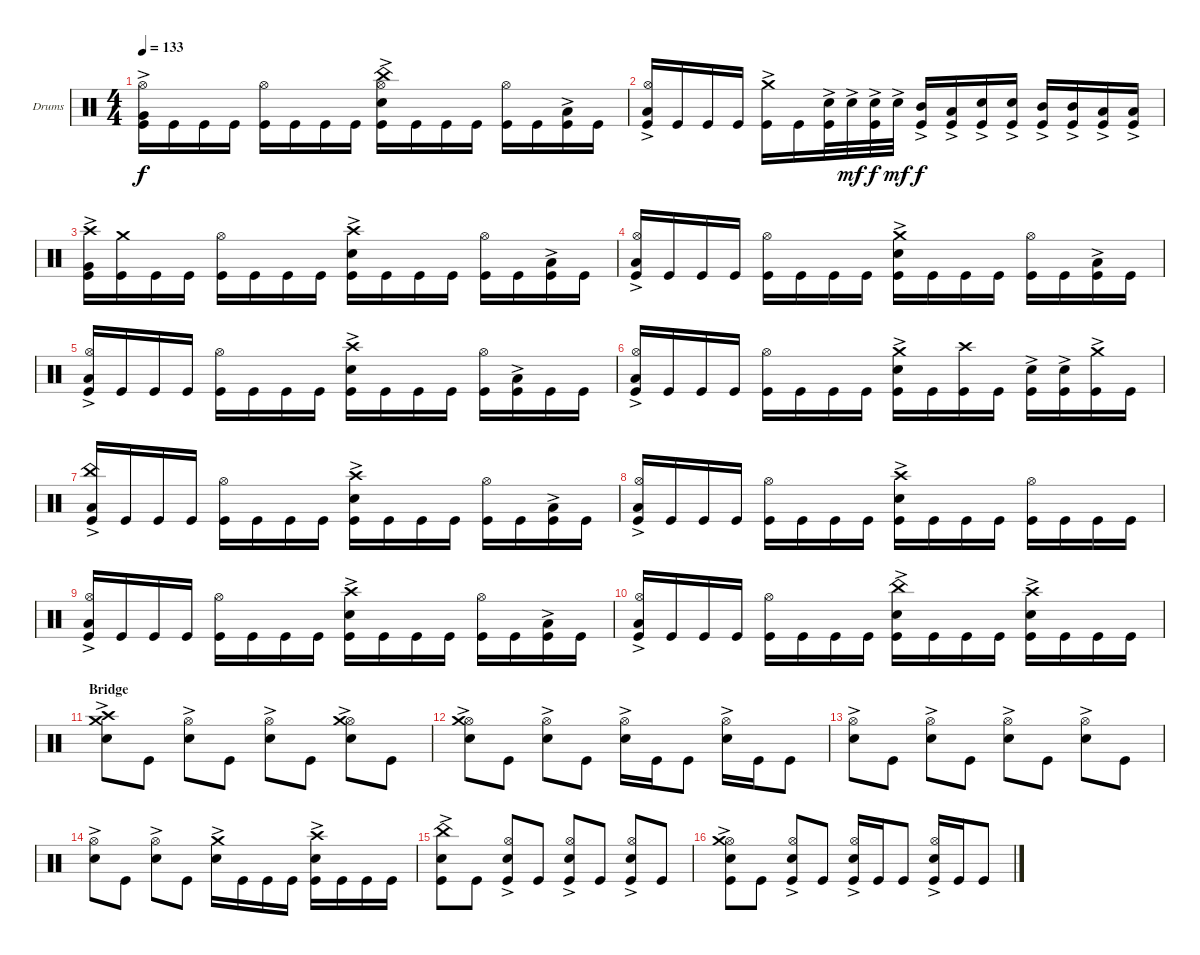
\bracketExtendMode groupsimilarinstruments
\firstSystemTrackNameOrientation horizontal
\otherSystemsTrackNameOrientation horizontal
\track ("Drumkit" "Drums") {instrument percussion}
\staff {score}
\articulation defaults
\ts (4 4)
\tempo 133
\clef neutral
\ks c
("Kick (hit)" "Very Low Tom (hit)"{ac} "Hi-Hat (open)").16{dy f} "Kick (hit)".16 "Kick (hit)".16 "Kick (hit)".16 ("Kick (hit)" "Hi-Hat (open)").16 "Kick (hit)".16 "Kick (hit)".16 "Kick (hit)".16 ("Kick (hit)" "Snare (hit) 2"{ac} "Hi-Hat (open)" "China (hit)").16 "Kick (hit)".16 "Kick (hit)".16 "Kick (hit)".16 ("Kick (hit)" "Hi-Hat (open)").16 "Kick (hit)".16 ("Kick (hit)" "Low Tom (hit)"{ac}).16 "Kick (hit)".16 |
("Kick (hit)" "Hi-Hat (open)" "Low Tom (hit)"{ac}).16 "Kick (hit)".16 "Kick (hit)".16 "Kick (hit)".16 ("Kick (hit)" "Crash medium (hit)"{ac}).16 "Kick (hit)".16 ("Kick (hit)" "Snare (hit) 2"{ac}).32 "Snare (hit) 2"{ac}.32{dy mf} ("Kick (hit)" "Snare (hit) 2"{ac}).32{dy f} "Snare (hit) 2"{ac}.32{dy mf} ("Kick (hit)" "Mid Tom (hit)"{ac}).16{dy f} ("Kick (hit)" "Low Tom (hit)"{ac}).16 ("Kick (hit)" "Snare (hit) 2"{ac}).16 ("Kick (hit)" "Snare (hit) 2"{ac}).16 ("Kick (hit)" "Mid Tom (hit)"{ac}).16 ("Kick (hit)" "Mid Tom (hit)"{ac}).16 ("Kick (hit)" "Low Tom (hit)"{ac}).16 ("Kick (hit)" "Low Tom (hit)"{ac}).16 |
("Kick (hit)" "Crash high (hit)" "Very Low Tom (hit)"{ac}).16 ("Kick (hit)" "Crash medium (hit)").16 "Kick (hit)".16 "Kick (hit)".16 ("Kick (hit)" "Hi-Hat (open)").16 "Kick (hit)".16 "Kick (hit)".16 "Kick (hit)".16 ("Kick (hit)" "Snare (hit) 2"{ac} "Crash high (hit)").16 "Kick (hit)".16 "Kick (hit)".16 "Kick (hit)".16 ("Kick (hit)" "Hi-Hat (open)").16 "Kick (hit)".16 ("Kick (hit)" "Low Tom (hit)"{ac}).16 "Kick (hit)".16 |
("Kick (hit)" "Low Tom (hit)"{ac} "Hi-Hat (open)").16 "Kick (hit)".16 "Kick (hit)".16 "Kick (hit)".16 ("Kick (hit)" "Hi-Hat (open)").16 "Kick (hit)".16 "Kick (hit)".16 "Kick (hit)".16 ("Kick (hit)" "Snare (hit) 2"{ac} "Crash medium (hit)").16 "Kick (hit)".16 "Kick (hit)".16 "Kick (hit)".16 ("Kick (hit)" "Hi-Hat (open)").16 "Kick (hit)".16 ("Kick (hit)" "Low Tom (hit)"{ac}).16 "Kick (hit)".16 |
("Kick (hit)" "Hi-Hat (open)" "Low Tom (hit)"{ac}).16 "Kick (hit)".16 "Kick (hit)".16 "Kick (hit)".16 ("Kick (hit)" "Hi-Hat (open)").16 "Kick (hit)".16 "Kick (hit)".16 "Kick (hit)".16 ("Kick (hit)" "Crash high (hit)" "Snare (hit) 2"{ac}).16 "Kick (hit)".16 "Kick (hit)".16 "Kick (hit)".16 ("Kick (hit)" "Hi-Hat (open)").16 ("Kick (hit)" "Low Tom (hit)"{ac}).16 "Kick (hit)".16 "Kick (hit)".16 |
("Kick (hit)" "Hi-Hat (open)" "Low Tom (hit)"{ac}).16 "Kick (hit)".16 "Kick (hit)".16 "Kick (hit)".16 ("Kick (hit)" "Hi-Hat (open)").16 "Kick (hit)".16 "Kick (hit)".16 "Kick (hit)".16 ("Kick (hit)" "Crash medium (hit)" "Snare (hit) 2"{ac}).16 "Kick (hit)".16 ("Kick (hit)" "Crash high (hit)").16 "Kick (hit)".16 ("Kick (hit)" "Snare (hit) 2"{ac}).16 ("Kick (hit)" "Snare (hit) 2"{ac}).16 ("Kick (hit)" "Crash medium (hit)"{ac}).16 "Kick (hit)".16 |
("Kick (hit)" "China (hit)"{ac} "Low Tom (hit)"{ac}).16 "Kick (hit)".16 "Kick (hit)".16 "Kick (hit)".16 ("Kick (hit)" "Hi-Hat (open)").16 "Kick (hit)".16 "Kick (hit)".16 "Kick (hit)".16 ("Kick (hit)" "Crash high (hit)" "Snare (hit) 2"{ac}).16 "Kick (hit)".16 "Kick (hit)".16 "Kick (hit)".16 ("Kick (hit)" "Hi-Hat (open)").16 "Kick (hit)".16 ("Kick (hit)" "Low Tom (hit)"{ac}).16 "Kick (hit)".16 |
("Kick (hit)" "Hi-Hat (open)" "Low Tom (hit)"{ac}).16 "Kick (hit)".16 "Kick (hit)".16 "Kick (hit)".16 ("Kick (hit)" "Hi-Hat (open)").16 "Kick (hit)".16 "Kick (hit)".16 "Kick (hit)".16 ("Kick (hit)" "Crash high (hit)" "Snare (hit) 2"{ac}).16 "Kick (hit)".16 "Kick (hit)".16 "Kick (hit)".16 ("Kick (hit)" "Hi-Hat (open)").16 "Kick (hit)".16 "Kick (hit)".16 "Kick (hit)".16 |
("Kick (hit)" "Hi-Hat (open)" "Low Tom (hit)"{ac}).16 "Kick (hit)".16 "Kick (hit)".16 "Kick (hit)".16 ("Kick (hit)" "Hi-Hat (open)").16 "Kick (hit)".16 "Kick (hit)".16 "Kick (hit)".16 ("Kick (hit)" "Crash high (hit)" "Snare (hit) 2"{ac}).16 "Kick (hit)".16 "Kick (hit)".16 "Kick (hit)".16 ("Kick (hit)" "Hi-Hat (open)").16 "Kick (hit)".16 ("Kick (hit)" "Low Tom (hit)"{ac}).16 "Kick (hit)".16 |
("Kick (hit)" "Low Tom (hit)"{ac} "Hi-Hat (open)").16 "Kick (hit)".16 "Kick (hit)".16 "Kick (hit)".16 ("Kick (hit)" "Hi-Hat (open)").16 "Kick (hit)".16 "Kick (hit)".16 "Kick (hit)".16 ("Kick (hit)" "Snare (hit) 2"{ac} "China (hit)"{ac}).16 "Kick (hit)".16 "Kick (hit)".16 "Kick (hit)".16 ("Kick (hit)" "Snare (hit) 2"{ac} "Crash high (hit)").16 "Kick (hit)".16 "Kick (hit)".16 "Kick (hit)".16 |
\section ("" "Bridge")
("Snare (hit) 2"{ac} "Crash medium (hit)" "Crash high (hit)").8 "Kick (hit)".8 ("Snare (hit) 2"{ac} "Hi-Hat (open)").8 "Kick (hit)".8 ("Snare (hit) 2"{ac} "Hi-Hat (open)").8 "Kick (hit)".8 ("Snare (hit) 2"{ac} "Hi-Hat (open)" "Crash medium (hit)").8 "Kick (hit)".8 |
("Snare (hit) 2"{ac} "Hi-Hat (open)" "Crash medium (hit)").8 "Kick (hit)".8 ("Snare (hit) 2"{ac} "Hi-Hat (open)").8 "Kick (hit)".8 ("Snare (hit) 2"{ac} "Hi-Hat (open)").16 "Kick (hit)".16 "Kick (hit)".8 ("Snare (hit) 2"{ac} "Hi-Hat (open)").16 "Kick (hit)".16 "Kick (hit)".8 |
("Snare (hit) 2"{ac} "Hi-Hat (open)").8 "Kick (hit)".8 ("Snare (hit) 2"{ac} "Hi-Hat (open)").8 "Kick (hit)".8 ("Snare (hit) 2"{ac} "Hi-Hat (open)").8 "Kick (hit)".8 ("Snare (hit) 2"{ac} "Hi-Hat (open)").8 "Kick (hit)".8 |
("Snare (hit) 2"{ac} "Hi-Hat (open)").8 "Kick (hit)".8 ("Snare (hit) 2"{ac} "Hi-Hat (open)").8 "Kick (hit)".8 ("Snare (hit) 2"{ac} "Crash medium (hit)").16 "Kick (hit)".16 "Kick (hit)".16 "Kick (hit)".16 ("Snare (hit) 2"{ac} "Crash high (hit)" "Kick (hit)").16 "Kick (hit)".16 "Kick (hit)".16 "Kick (hit)".16 |
("China (hit)"{ac} "Snare (hit) 2"{ac} "Kick (hit)").8 "Kick (hit)".8 ("Snare (hit) 2"{ac} "Hi-Hat (open)" "Kick (hit)").8 "Kick (hit)".8 ("Snare (hit) 2"{ac} "Hi-Hat (open)" "Kick (hit)").8 "Kick (hit)".8 ("Snare (hit) 2"{ac} "Hi-Hat (open)" "Kick (hit)").8 "Kick (hit)".8 |
("Snare (hit) 2"{ac} "Hi-Hat (open)" "Crash medium (hit)"{ac} "Kick (hit)").8 "Kick (hit)".8 ("Snare (hit) 2"{ac} "Hi-Hat (open)" "Kick (hit)").8 "Kick (hit)".8 ("Snare (hit) 2"{ac} "Hi-Hat (open)" "Kick (hit)").16 "Kick (hit)".16 "Kick (hit)".8 ("Snare (hit) 2"{ac} "Hi-Hat (open)" "Kick (hit)").16 "Kick (hit)".16 "Kick (hit)".8
